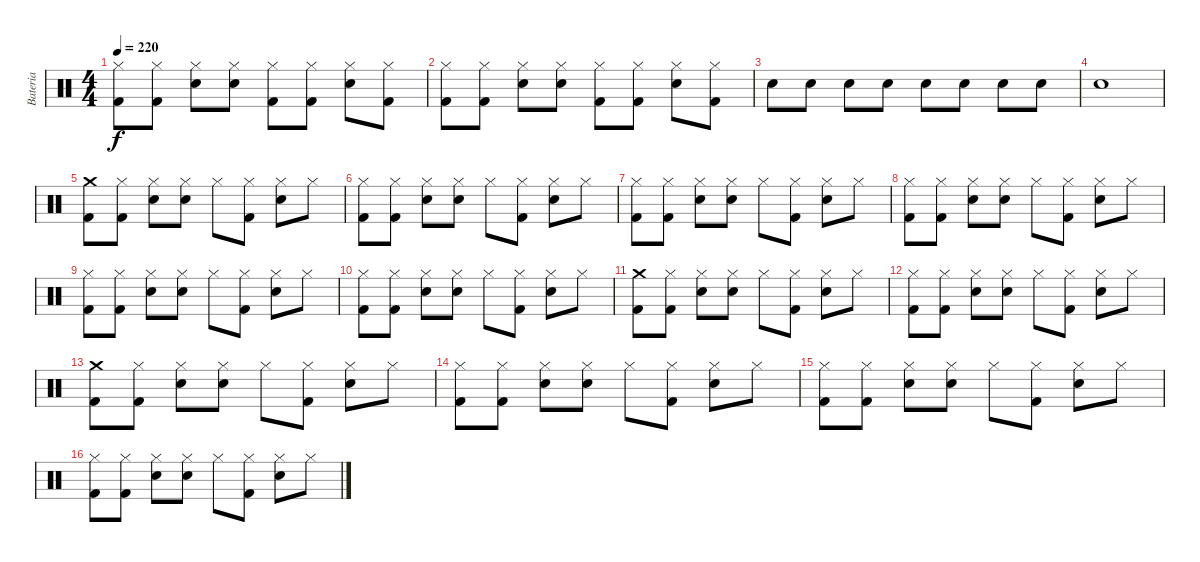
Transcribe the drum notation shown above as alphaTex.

\track ("Bateria" "Bateria") {instrument percussion}
\staff {score}
\articulation defaults
\ts (4 4)
\tempo 220
\clef neutral
\ks c
("Hi-Hat (closed)" "Kick (hit) 2").8{dy f} ("Hi-Hat (closed)" "Kick (hit) 2").8 ("Hi-Hat (closed)" "Electric Snare (hit)").8 ("Hi-Hat (closed)" "Electric Snare (hit)").8 ("Hi-Hat (closed)" "Kick (hit) 2").8 ("Hi-Hat (closed)" "Kick (hit) 2").8 ("Hi-Hat (closed)" "Electric Snare (hit)").8 ("Hi-Hat (closed)" "Kick (hit) 2").8 |
("Hi-Hat (closed)" "Kick (hit) 2").8 ("Hi-Hat (closed)" "Kick (hit) 2").8 ("Hi-Hat (closed)" "Electric Snare (hit)").8 ("Hi-Hat (closed)" "Electric Snare (hit)").8 ("Hi-Hat (closed)" "Kick (hit) 2").8 ("Hi-Hat (closed)" "Kick (hit) 2").8 ("Hi-Hat (closed)" "Electric Snare (hit)").8 ("Hi-Hat (closed)" "Kick (hit) 2").8 |
"Electric Snare (hit)".8 "Electric Snare (hit)".8 "Electric Snare (hit)".8 "Electric Snare (hit)".8 "Electric Snare (hit)".8 "Electric Snare (hit)".8 "Electric Snare (hit)".8 "Electric Snare (hit)".8 |
"Electric Snare (hit)".1 |
("Crash medium (hit)" "Kick (hit) 2").8 ("Hi-Hat (closed)" "Kick (hit) 2").8 ("Hi-Hat (closed)" "Electric Snare (hit)").8 ("Hi-Hat (closed)" "Electric Snare (hit)").8 "Hi-Hat (closed)".8 ("Hi-Hat (closed)" "Kick (hit) 2").8 ("Hi-Hat (closed)" "Electric Snare (hit)").8 "Hi-Hat (closed)".8 |
("Hi-Hat (closed)" "Kick (hit) 2").8 ("Hi-Hat (closed)" "Kick (hit) 2").8 ("Hi-Hat (closed)" "Electric Snare (hit)").8 ("Hi-Hat (closed)" "Electric Snare (hit)").8 "Hi-Hat (closed)".8 ("Hi-Hat (closed)" "Kick (hit) 2").8 ("Hi-Hat (closed)" "Electric Snare (hit)").8 "Hi-Hat (closed)".8 |
("Hi-Hat (closed)" "Kick (hit) 2").8 ("Hi-Hat (closed)" "Kick (hit) 2").8 ("Hi-Hat (closed)" "Electric Snare (hit)").8 ("Hi-Hat (closed)" "Electric Snare (hit)").8 "Hi-Hat (closed)".8 ("Hi-Hat (closed)" "Kick (hit) 2").8 ("Hi-Hat (closed)" "Electric Snare (hit)").8 "Hi-Hat (closed)".8 |
("Hi-Hat (closed)" "Kick (hit) 2").8 ("Hi-Hat (closed)" "Kick (hit) 2").8 ("Hi-Hat (closed)" "Electric Snare (hit)").8 ("Hi-Hat (closed)" "Electric Snare (hit)").8 "Hi-Hat (closed)".8 ("Hi-Hat (closed)" "Kick (hit) 2").8 ("Hi-Hat (closed)" "Electric Snare (hit)").8 "Hi-Hat (closed)".8 |
("Hi-Hat (closed)" "Kick (hit) 2").8 ("Hi-Hat (closed)" "Kick (hit) 2").8 ("Hi-Hat (closed)" "Electric Snare (hit)").8 ("Hi-Hat (closed)" "Electric Snare (hit)").8 "Hi-Hat (closed)".8 ("Hi-Hat (closed)" "Kick (hit) 2").8 ("Hi-Hat (closed)" "Electric Snare (hit)").8 "Hi-Hat (closed)".8 |
("Hi-Hat (closed)" "Kick (hit) 2").8 ("Hi-Hat (closed)" "Kick (hit) 2").8 ("Hi-Hat (closed)" "Electric Snare (hit)").8 ("Hi-Hat (closed)" "Electric Snare (hit)").8 "Hi-Hat (closed)".8 ("Hi-Hat (closed)" "Kick (hit) 2").8 ("Hi-Hat (closed)" "Electric Snare (hit)").8 "Hi-Hat (closed)".8 |
("Crash medium (hit)" "Kick (hit) 2").8 ("Hi-Hat (closed)" "Kick (hit) 2").8 ("Hi-Hat (closed)" "Electric Snare (hit)").8 ("Hi-Hat (closed)" "Electric Snare (hit)").8 "Hi-Hat (closed)".8 ("Hi-Hat (closed)" "Kick (hit) 2").8 ("Hi-Hat (closed)" "Electric Snare (hit)").8 "Hi-Hat (closed)".8 |
("Hi-Hat (closed)" "Kick (hit) 2").8 ("Hi-Hat (closed)" "Kick (hit) 2").8 ("Hi-Hat (closed)" "Electric Snare (hit)").8 ("Hi-Hat (closed)" "Electric Snare (hit)").8 "Hi-Hat (closed)".8 ("Hi-Hat (closed)" "Kick (hit) 2").8 ("Hi-Hat (closed)" "Electric Snare (hit)").8 "Hi-Hat (closed)".8 |
("Crash medium (hit)" "Kick (hit) 2").8 ("Hi-Hat (closed)" "Kick (hit) 2").8 ("Hi-Hat (closed)" "Electric Snare (hit)").8 ("Hi-Hat (closed)" "Electric Snare (hit)").8 "Hi-Hat (closed)".8 ("Hi-Hat (closed)" "Kick (hit) 2").8 ("Hi-Hat (closed)" "Electric Snare (hit)").8 "Hi-Hat (closed)".8 |
("Hi-Hat (closed)" "Kick (hit) 2").8 ("Hi-Hat (closed)" "Kick (hit) 2").8 ("Hi-Hat (closed)" "Electric Snare (hit)").8 ("Hi-Hat (closed)" "Electric Snare (hit)").8 "Hi-Hat (closed)".8 ("Hi-Hat (closed)" "Kick (hit) 2").8 ("Hi-Hat (closed)" "Electric Snare (hit)").8 "Hi-Hat (closed)".8 |
("Hi-Hat (closed)" "Kick (hit) 2").8 ("Hi-Hat (closed)" "Kick (hit) 2").8 ("Hi-Hat (closed)" "Electric Snare (hit)").8 ("Hi-Hat (closed)" "Electric Snare (hit)").8 "Hi-Hat (closed)".8 ("Hi-Hat (closed)" "Kick (hit) 2").8 ("Hi-Hat (closed)" "Electric Snare (hit)").8 "Hi-Hat (closed)".8 |
("Hi-Hat (closed)" "Kick (hit) 2").8 ("Hi-Hat (closed)" "Kick (hit) 2").8 ("Hi-Hat (closed)" "Electric Snare (hit)").8 ("Hi-Hat (closed)" "Electric Snare (hit)").8 "Hi-Hat (closed)".8 ("Hi-Hat (closed)" "Kick (hit) 2").8 ("Hi-Hat (closed)" "Electric Snare (hit)").8 "Hi-Hat (closed)".8
